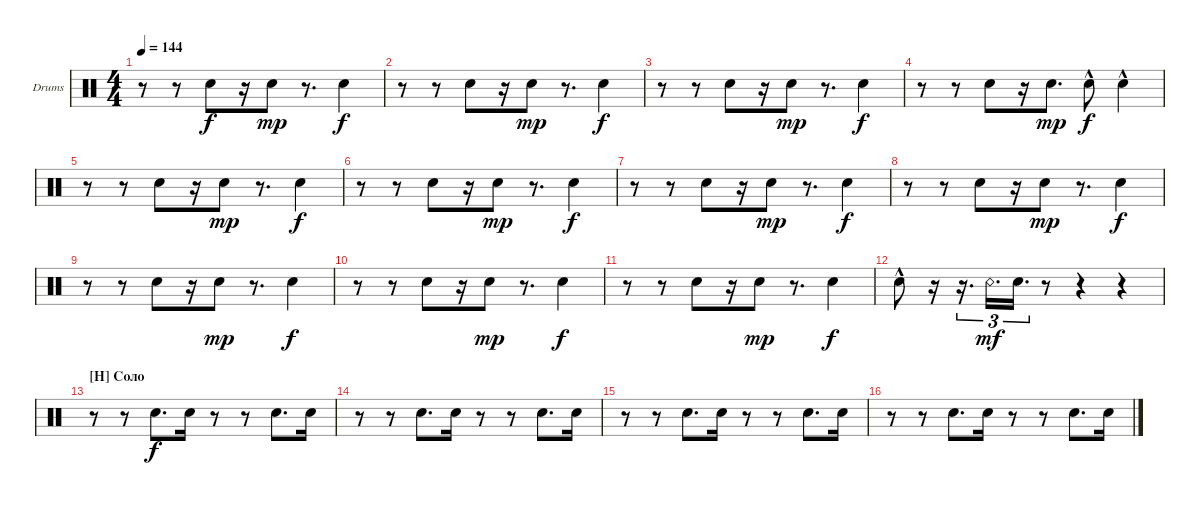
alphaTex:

\defaultSystemsLayout 4
\bracketExtendMode groupsimilarinstruments
\firstSystemTrackNameOrientation horizontal
\otherSystemsTrackNameOrientation horizontal
\track ("Snare" "Drums") {instrument percussion}
\staff {score}
\articulation defaults
\ts (4 4)
\tempo 144
\clef neutral
\ks c
r.8{dy f} r.8 "Snare (hit) 2".8 r.16 "Snare (hit) 2".8{dy mp} r.8{d} "Snare (hit) 2".4{dy f} |
r.8 r.8 "Snare (hit) 2".8 r.16 "Snare (hit) 2".8{dy mp} r.8{d} "Snare (hit) 2".4{dy f} |
r.8 r.8 "Snare (hit) 2".8 r.16 "Snare (hit) 2".8{dy mp} r.8{d} "Snare (hit) 2".4{dy f} |
r.8 r.8 "Snare (hit) 2".8 r.16 "Snare (hit) 2".8{d dy mp} "Snare (hit) 2"{hac}.8{dy f} "Snare (hit) 2"{hac}.4 |
r.8 r.8 "Snare (hit) 2".8 r.16 "Snare (hit) 2".8{dy mp} r.8{d} "Snare (hit) 2".4{dy f} |
r.8 r.8 "Snare (hit) 2".8 r.16 "Snare (hit) 2".8{dy mp} r.8{d} "Snare (hit) 2".4{dy f} |
r.8 r.8 "Snare (hit) 2".8 r.16 "Snare (hit) 2".8{dy mp} r.8{d} "Snare (hit) 2".4{dy f} |
r.8 r.8 "Snare (hit) 2".8 r.16 "Snare (hit) 2".8{dy mp} r.8{d} "Snare (hit) 2".4{dy f} |
r.8 r.8 "Snare (hit) 2".8 r.16 "Snare (hit) 2".8{dy mp} r.8{d} "Snare (hit) 2".4{dy f} |
r.8 r.8 "Snare (hit) 2".8 r.16 "Snare (hit) 2".8{dy mp} r.8{d} "Snare (hit) 2".4{dy f} |
r.8 r.8 "Snare (hit) 2".8 r.16 "Snare (hit) 2".8{dy mp} r.8{d} "Snare (hit) 2".4{dy f} |
"Snare (hit) 2"{hac}.8 r.16 r.16{d tu (3 2)} "Snare (rim shot)".16{d tu (3 2) dy mf} "Snare (hit) 2".16{d tu (3 2)} r.8 r.4 r.4 |
\section ("H" "Соло")
r.8 r.8 "Snare (hit) 2".8{d dy f} "Snare (hit) 2".16 r.8 r.8 "Snare (hit) 2".8{d} "Snare (hit) 2".16 |
r.8 r.8 "Snare (hit) 2".8{d} "Snare (hit) 2".16 r.8 r.8 "Snare (hit) 2".8{d} "Snare (hit) 2".16 |
r.8 r.8 "Snare (hit) 2".8{d} "Snare (hit) 2".16 r.8 r.8 "Snare (hit) 2".8{d} "Snare (hit) 2".16 |
r.8 r.8 "Snare (hit) 2".8{d} "Snare (hit) 2".16 r.8 r.8 "Snare (hit) 2".8{d} "Snare (hit) 2".16
